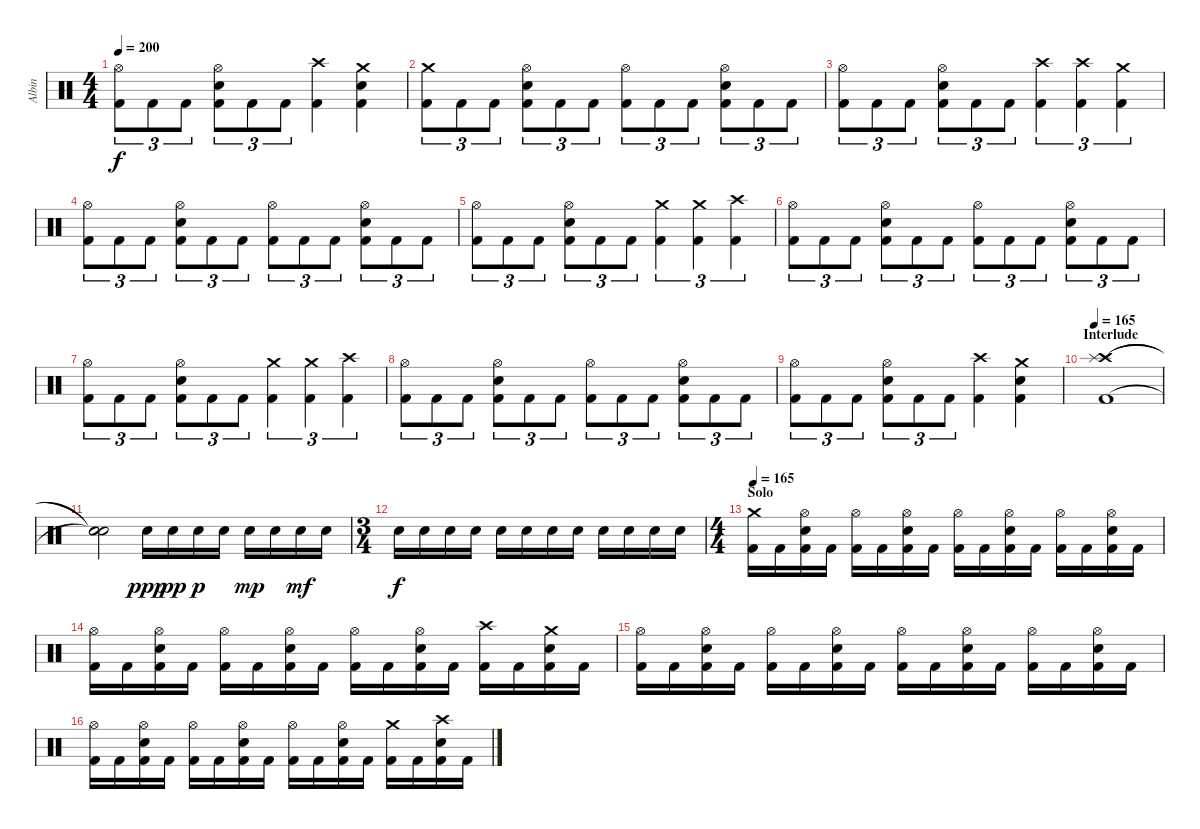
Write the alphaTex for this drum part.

\track ("Albin" "Albin") {instrument percussion}
\staff {score}
\articulation defaults
\ts (4 4)
\tempo 200
\clef neutral
\ks c
("Hi-Hat (open)" "Kick (hit) 2").8{tu (3 2) dy f} "Kick (hit) 2".8{tu (3 2)} "Kick (hit) 2".8{tu (3 2)} ("Hi-Hat (open)" "Electric Snare (hit)" "Kick (hit) 2").8{tu (3 2)} "Kick (hit) 2".8{tu (3 2)} "Kick (hit) 2".8{tu (3 2)} ("Crash high (hit)" "Kick (hit) 2").4 ("Crash medium (hit)" "Electric Snare (hit)" "Kick (hit) 2").4 |
("Crash medium (hit)" "Kick (hit) 2").8{tu (3 2)} "Kick (hit) 2".8{tu (3 2)} "Kick (hit) 2".8{tu (3 2)} ("Hi-Hat (open)" "Electric Snare (hit)" "Kick (hit) 2").8{tu (3 2)} "Kick (hit) 2".8{tu (3 2)} "Kick (hit) 2".8{tu (3 2)} ("Hi-Hat (open)" "Kick (hit) 2").8{tu (3 2)} "Kick (hit) 2".8{tu (3 2)} "Kick (hit) 2".8{tu (3 2)} ("Hi-Hat (open)" "Electric Snare (hit)" "Kick (hit) 2").8{tu (3 2)} "Kick (hit) 2".8{tu (3 2)} "Kick (hit) 2".8{tu (3 2)} |
("Hi-Hat (open)" "Kick (hit) 2").8{tu (3 2)} "Kick (hit) 2".8{tu (3 2)} "Kick (hit) 2".8{tu (3 2)} ("Hi-Hat (open)" "Electric Snare (hit)" "Kick (hit) 2").8{tu (3 2)} "Kick (hit) 2".8{tu (3 2)} "Kick (hit) 2".8{tu (3 2)} ("Crash high (hit)" "Kick (hit) 2").4{tu (3 2)} ("Crash high (hit)" "Kick (hit) 2").4{tu (3 2)} ("Crash medium (hit)" "Kick (hit) 2").4{tu (3 2)} |
("Hi-Hat (open)" "Kick (hit) 2").8{tu (3 2)} "Kick (hit) 2".8{tu (3 2)} "Kick (hit) 2".8{tu (3 2)} ("Hi-Hat (open)" "Electric Snare (hit)" "Kick (hit) 2").8{tu (3 2)} "Kick (hit) 2".8{tu (3 2)} "Kick (hit) 2".8{tu (3 2)} ("Hi-Hat (open)" "Kick (hit) 2").8{tu (3 2)} "Kick (hit) 2".8{tu (3 2)} "Kick (hit) 2".8{tu (3 2)} ("Hi-Hat (open)" "Electric Snare (hit)" "Kick (hit) 2").8{tu (3 2)} "Kick (hit) 2".8{tu (3 2)} "Kick (hit) 2".8{tu (3 2)} |
("Hi-Hat (open)" "Kick (hit) 2").8{tu (3 2)} "Kick (hit) 2".8{tu (3 2)} "Kick (hit) 2".8{tu (3 2)} ("Hi-Hat (open)" "Electric Snare (hit)" "Kick (hit) 2").8{tu (3 2)} "Kick (hit) 2".8{tu (3 2)} "Kick (hit) 2".8{tu (3 2)} ("Crash medium (hit)" "Kick (hit) 2").4{tu (3 2)} ("Crash medium (hit)" "Kick (hit) 2").4{tu (3 2)} ("Crash high (hit)" "Kick (hit) 2").4{tu (3 2)} |
("Hi-Hat (open)" "Kick (hit) 2").8{tu (3 2)} "Kick (hit) 2".8{tu (3 2)} "Kick (hit) 2".8{tu (3 2)} ("Hi-Hat (open)" "Electric Snare (hit)" "Kick (hit) 2").8{tu (3 2)} "Kick (hit) 2".8{tu (3 2)} "Kick (hit) 2".8{tu (3 2)} ("Hi-Hat (open)" "Kick (hit) 2").8{tu (3 2)} "Kick (hit) 2".8{tu (3 2)} "Kick (hit) 2".8{tu (3 2)} ("Hi-Hat (open)" "Electric Snare (hit)" "Kick (hit) 2").8{tu (3 2)} "Kick (hit) 2".8{tu (3 2)} "Kick (hit) 2".8{tu (3 2)} |
("Hi-Hat (open)" "Kick (hit) 2").8{tu (3 2)} "Kick (hit) 2".8{tu (3 2)} "Kick (hit) 2".8{tu (3 2)} ("Hi-Hat (open)" "Electric Snare (hit)" "Kick (hit) 2").8{tu (3 2)} "Kick (hit) 2".8{tu (3 2)} "Kick (hit) 2".8{tu (3 2)} ("Crash medium (hit)" "Kick (hit) 2").4{tu (3 2)} ("Crash medium (hit)" "Kick (hit) 2").4{tu (3 2)} ("Crash high (hit)" "Kick (hit) 2").4{tu (3 2)} |
("Hi-Hat (open)" "Kick (hit) 2").8{tu (3 2)} "Kick (hit) 2".8{tu (3 2)} "Kick (hit) 2".8{tu (3 2)} ("Hi-Hat (open)" "Electric Snare (hit)" "Kick (hit) 2").8{tu (3 2)} "Kick (hit) 2".8{tu (3 2)} "Kick (hit) 2".8{tu (3 2)} ("Hi-Hat (open)" "Kick (hit) 2").8{tu (3 2)} "Kick (hit) 2".8{tu (3 2)} "Kick (hit) 2".8{tu (3 2)} ("Hi-Hat (open)" "Electric Snare (hit)" "Kick (hit) 2").8{tu (3 2)} "Kick (hit) 2".8{tu (3 2)} "Kick (hit) 2".8{tu (3 2)} |
("Hi-Hat (open)" "Kick (hit) 2").8{tu (3 2)} "Kick (hit) 2".8{tu (3 2)} "Kick (hit) 2".8{tu (3 2)} ("Hi-Hat (open)" "Electric Snare (hit)" "Kick (hit) 2").8{tu (3 2)} "Kick (hit) 2".8{tu (3 2)} "Kick (hit) 2".8{tu (3 2)} ("Crash high (hit)" "Kick (hit) 2").4 ("Crash medium (hit)" "Electric Snare (hit)" "Kick (hit) 2").4 |
\section ("" "Interlude")
\tempo 165
("Crash high (hit)" "Splash (hit)" "Kick (hit) 2").1 |
("Snare (hit)"{t} "Snare (hit)"{t} "Snare (hit)"{t}).2 "Electric Snare (hit)".16{dy ppp} "Electric Snare (hit)".16{dy pp} "Electric Snare (hit)".16{dy p} "Electric Snare (hit)".16 "Electric Snare (hit)".16{dy mp} "Electric Snare (hit)".16 "Electric Snare (hit)".16{dy mf} "Electric Snare (hit)".16 |
\ts (3 4)
"Electric Snare (hit)".16{dy f} "Electric Snare (hit)".16 "Electric Snare (hit)".16 "Electric Snare (hit)".16 "Electric Snare (hit)".16 "Electric Snare (hit)".16 "Electric Snare (hit)".16 "Electric Snare (hit)".16 "Electric Snare (hit)".16 "Electric Snare (hit)".16 "Electric Snare (hit)".16 "Electric Snare (hit)".16 |
\ts (4 4)
\section ("" "Solo")
\tempo 165
("Crash medium (hit)" "Kick (hit) 2").16 "Kick (hit) 2".16 ("Hi-Hat (open)" "Electric Snare (hit)" "Kick (hit) 2").16 "Kick (hit) 2".16 ("Hi-Hat (open)" "Kick (hit) 2").16 "Kick (hit) 2".16 ("Hi-Hat (open)" "Electric Snare (hit)" "Kick (hit) 2").16 "Kick (hit) 2".16 ("Hi-Hat (open)" "Kick (hit) 2").16 "Kick (hit) 2".16 ("Hi-Hat (open)" "Electric Snare (hit)" "Kick (hit) 2").16 "Kick (hit) 2".16 ("Hi-Hat (open)" "Kick (hit) 2").16 "Kick (hit) 2".16 ("Hi-Hat (open)" "Electric Snare (hit)" "Kick (hit) 2").16 "Kick (hit) 2".16 |
("Hi-Hat (open)" "Kick (hit) 2").16 "Kick (hit) 2".16 ("Hi-Hat (open)" "Electric Snare (hit)" "Kick (hit) 2").16 "Kick (hit) 2".16 ("Hi-Hat (open)" "Kick (hit) 2").16 "Kick (hit) 2".16 ("Hi-Hat (open)" "Electric Snare (hit)" "Kick (hit) 2").16 "Kick (hit) 2".16 ("Hi-Hat (open)" "Kick (hit) 2").16 "Kick (hit) 2".16 ("Hi-Hat (open)" "Electric Snare (hit)" "Kick (hit) 2").16 "Kick (hit) 2".16 ("Crash high (hit)" "Kick (hit) 2").16 "Kick (hit) 2".16 ("Crash medium (hit)" "Electric Snare (hit)" "Kick (hit) 2").16 "Kick (hit) 2".16 |
("Hi-Hat (open)" "Kick (hit) 2").16 "Kick (hit) 2".16 ("Hi-Hat (open)" "Electric Snare (hit)" "Kick (hit) 2").16 "Kick (hit) 2".16 ("Hi-Hat (open)" "Kick (hit) 2").16 "Kick (hit) 2".16 ("Hi-Hat (open)" "Electric Snare (hit)" "Kick (hit) 2").16 "Kick (hit) 2".16 ("Hi-Hat (open)" "Kick (hit) 2").16 "Kick (hit) 2".16 ("Hi-Hat (open)" "Electric Snare (hit)" "Kick (hit) 2").16 "Kick (hit) 2".16 ("Hi-Hat (open)" "Kick (hit) 2").16 "Kick (hit) 2".16 ("Hi-Hat (open)" "Electric Snare (hit)" "Kick (hit) 2").16 "Kick (hit) 2".16 |
("Hi-Hat (open)" "Kick (hit) 2").16 "Kick (hit) 2".16 ("Hi-Hat (open)" "Electric Snare (hit)" "Kick (hit) 2").16 "Kick (hit) 2".16 ("Hi-Hat (open)" "Kick (hit) 2").16 "Kick (hit) 2".16 ("Hi-Hat (open)" "Electric Snare (hit)" "Kick (hit) 2").16 "Kick (hit) 2".16 ("Hi-Hat (open)" "Kick (hit) 2").16 "Kick (hit) 2".16 ("Hi-Hat (open)" "Electric Snare (hit)" "Kick (hit) 2").16 "Kick (hit) 2".16 ("Crash medium (hit)" "Kick (hit) 2").16 "Kick (hit) 2".16 ("Crash high (hit)" "Electric Snare (hit)" "Kick (hit) 2").16 "Kick (hit) 2".16
